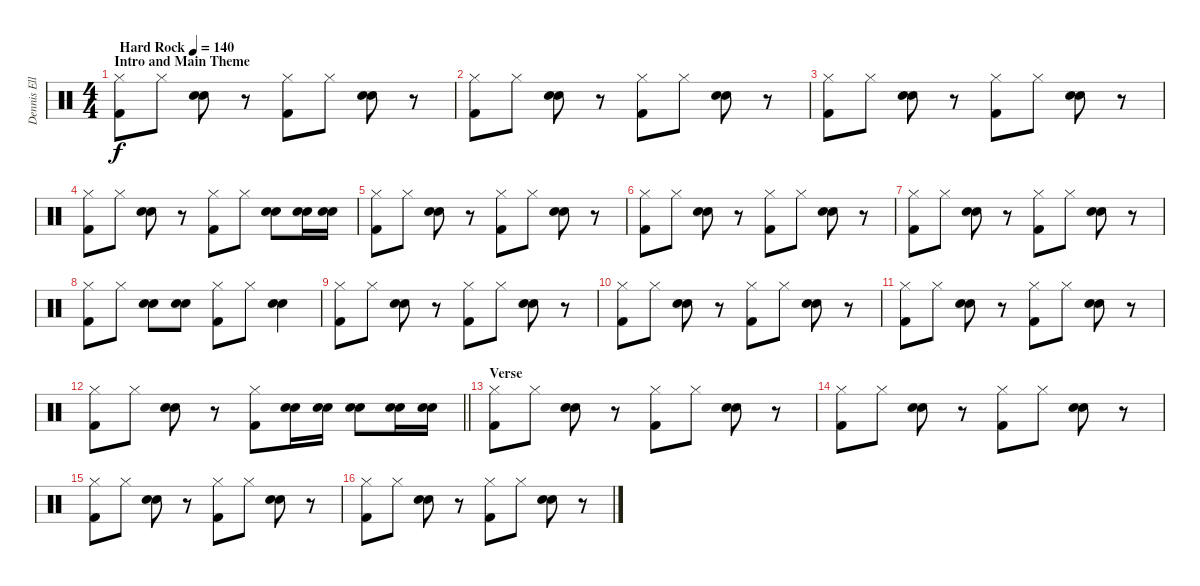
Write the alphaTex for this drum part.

\track ("Dennis Elliott (Drums)" "Dennis Ell") {instrument percussion}
\staff {score}
\articulation defaults
\ts (4 4)
\section ("" "Intro and Main Theme")
\tempo (140 "Hard Rock")
\clef neutral
\ks c
("Hi-Hat (closed)" "Kick (hit) 2").8{dy f} "Hi-Hat (closed)".8 ("Electric Snare (hit)" "Snare (hit) 2").8 r.8 ("Hi-Hat (closed)" "Kick (hit) 2").8 "Hi-Hat (closed)".8 ("Electric Snare (hit)" "Snare (hit) 2").8 r.8 |
("Hi-Hat (closed)" "Kick (hit) 2").8 "Hi-Hat (closed)".8 ("Electric Snare (hit)" "Snare (hit) 2").8 r.8 ("Hi-Hat (closed)" "Kick (hit) 2").8 "Hi-Hat (closed)".8 ("Electric Snare (hit)" "Snare (hit) 2").8 r.8 |
("Hi-Hat (closed)" "Kick (hit) 2").8 "Hi-Hat (closed)".8 ("Electric Snare (hit)" "Snare (hit) 2").8 r.8 ("Hi-Hat (closed)" "Kick (hit) 2").8 "Hi-Hat (closed)".8 ("Electric Snare (hit)" "Snare (hit) 2").8 r.8 |
("Hi-Hat (closed)" "Kick (hit) 2").8 "Hi-Hat (closed)".8 ("Electric Snare (hit)" "Snare (hit) 2").8 r.8 ("Hi-Hat (closed)" "Kick (hit) 2").8 "Hi-Hat (closed)".8 ("Electric Snare (hit)" "Snare (hit) 2").8 ("Electric Snare (hit)" "Snare (hit) 2").16 ("Electric Snare (hit)" "Snare (hit) 2").16 |
("Hi-Hat (closed)" "Kick (hit) 2").8 "Hi-Hat (closed)".8 ("Electric Snare (hit)" "Snare (hit) 2").8 r.8 ("Hi-Hat (closed)" "Kick (hit) 2").8 "Hi-Hat (closed)".8 ("Electric Snare (hit)" "Snare (hit) 2").8 r.8 |
("Hi-Hat (closed)" "Kick (hit) 2").8 "Hi-Hat (closed)".8 ("Electric Snare (hit)" "Snare (hit) 2").8 r.8 ("Hi-Hat (closed)" "Kick (hit) 2").8 "Hi-Hat (closed)".8 ("Electric Snare (hit)" "Snare (hit) 2").8 r.8 |
("Hi-Hat (closed)" "Kick (hit) 2").8 "Hi-Hat (closed)".8 ("Electric Snare (hit)" "Snare (hit) 2").8 r.8 ("Hi-Hat (closed)" "Kick (hit) 2").8 "Hi-Hat (closed)".8 ("Electric Snare (hit)" "Snare (hit) 2").8 r.8 |
("Hi-Hat (closed)" "Kick (hit) 2").8 "Hi-Hat (closed)".8 ("Electric Snare (hit)" "Snare (hit) 2").8 ("Electric Snare (hit)" "Snare (hit) 2").8 ("Hi-Hat (closed)" "Kick (hit) 2").8 "Hi-Hat (closed)".8 ("Electric Snare (hit)" "Snare (hit) 2").4 |
("Hi-Hat (closed)" "Kick (hit) 2").8 "Hi-Hat (closed)".8 ("Electric Snare (hit)" "Snare (hit) 2").8 r.8 ("Hi-Hat (closed)" "Kick (hit) 2").8 "Hi-Hat (closed)".8 ("Electric Snare (hit)" "Snare (hit) 2").8 r.8 |
("Hi-Hat (closed)" "Kick (hit) 2").8 "Hi-Hat (closed)".8 ("Electric Snare (hit)" "Snare (hit) 2").8 r.8 ("Hi-Hat (closed)" "Kick (hit) 2").8 "Hi-Hat (closed)".8 ("Electric Snare (hit)" "Snare (hit) 2").8 r.8 |
("Hi-Hat (closed)" "Kick (hit) 2").8 "Hi-Hat (closed)".8 ("Electric Snare (hit)" "Snare (hit) 2").8 r.8 ("Hi-Hat (closed)" "Kick (hit) 2").8 "Hi-Hat (closed)".8 ("Electric Snare (hit)" "Snare (hit) 2").8 r.8 |
\barLineRight lightlight
("Hi-Hat (closed)" "Kick (hit) 2").8 "Hi-Hat (closed)".8 ("Electric Snare (hit)" "Snare (hit) 2").8 r.8 ("Hi-Hat (closed)" "Kick (hit) 2").8 ("Electric Snare (hit)" "Snare (hit) 2").16 ("Electric Snare (hit)" "Snare (hit) 2").16 ("Electric Snare (hit)" "Snare (hit) 2").8 ("Electric Snare (hit)" "Snare (hit) 2").16 ("Electric Snare (hit)" "Snare (hit) 2").16 |
\section ("" "Verse")
("Hi-Hat (closed)" "Kick (hit) 2").8 "Hi-Hat (closed)".8 ("Electric Snare (hit)" "Snare (hit) 2").8 r.8 ("Hi-Hat (closed)" "Kick (hit) 2").8 "Hi-Hat (closed)".8 ("Electric Snare (hit)" "Snare (hit) 2").8 r.8 |
("Hi-Hat (closed)" "Kick (hit) 2").8 "Hi-Hat (closed)".8 ("Electric Snare (hit)" "Snare (hit) 2").8 r.8 ("Hi-Hat (closed)" "Kick (hit) 2").8 "Hi-Hat (closed)".8 ("Electric Snare (hit)" "Snare (hit) 2").8 r.8 |
("Hi-Hat (closed)" "Kick (hit) 2").8 "Hi-Hat (closed)".8 ("Electric Snare (hit)" "Snare (hit) 2").8 r.8 ("Hi-Hat (closed)" "Kick (hit) 2").8 "Hi-Hat (closed)".8 ("Electric Snare (hit)" "Snare (hit) 2").8 r.8 |
("Hi-Hat (closed)" "Kick (hit) 2").8 "Hi-Hat (closed)".8 ("Electric Snare (hit)" "Snare (hit) 2").8 r.8 ("Hi-Hat (closed)" "Kick (hit) 2").8 "Hi-Hat (closed)".8 ("Electric Snare (hit)" "Snare (hit) 2").8 r.8
